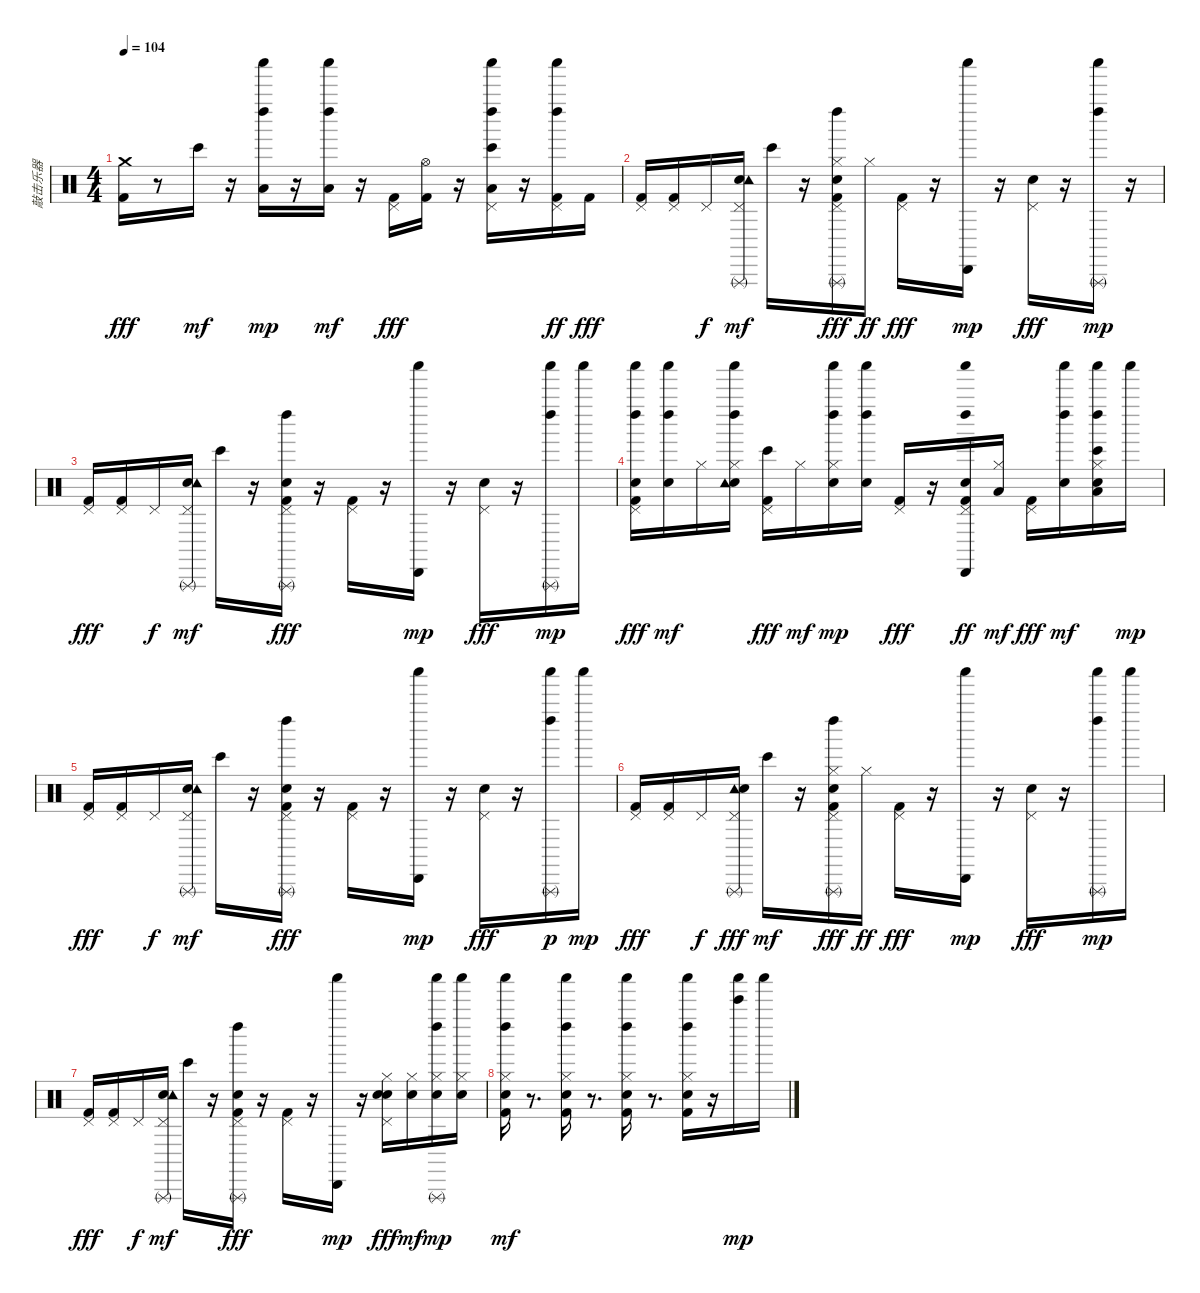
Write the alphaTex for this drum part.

\track ("敲击乐器" "敲击乐器") {instrument percussion}
\staff {score}
\articulation defaults
\ts (4 4)
\tempo 104
\clef neutral
\ks c
("Kick (hit) 2" "Crash medium (hit)").16{dy fff} r.8 "Bongo High (hit)".16{dy mf} r.16 ("Low Tom (hit)" "Shaker (hit)" "Left Maraca (hit)").16{dy mp} r.16 ("Low Tom (hit)" "Left Maraca (hit)" "Shaker (hit)").16{dy mf} r.16 ("Pedal Hi-Hat (hit)" "Kick (hit) 2").16{dy fff} ("Hi-Hat (open)" "Kick (hit) 2").16 r.16 ("Left Maraca (hit)" "Shaker (hit)" "Pedal Hi-Hat (hit)" "Bongo High (hit)" "Low Floor Tom (hit)").16 r.16 ("Left Maraca (hit)" "Shaker (hit)" "Kick (hit) 2" "Pedal Hi-Hat (hit)").16{dy ff} "Kick (hit) 2".16{dy fff} |
("Kick (hit) 2" "Pedal Hi-Hat (hit)").16 ("Kick (hit) 2" "Pedal Hi-Hat (hit)").16 "Pedal Hi-Hat (hit)".16{dy f} ("Snare (hit) 2" "Triangle (rnute)" "Pedal Hi-Hat (hit)" "Tambourine (hit)").16{dy mf} "Bongo High (hit)".16 r.16 ("Left Maraca (hit)" "Triangle (rnute)" "Hand Clap (hit)" "Pedal Hi-Hat (hit)" "Hi-Hat (closed)" "Kick (hit) 2").16{dy fff} "Hi-Hat (closed)".16{dy ff} ("Pedal Hi-Hat (hit)" "Kick (hit) 2").16{dy fff} r.16 ("Shaker (hit)" "Cabasa (hit)").16{dy mp} r.16 ("Pedal Hi-Hat (hit)" "Snare (hit) 2").16{dy fff} r.16 ("Triangle (rnute)" "Shaker (hit)" "Left Maraca (hit)").16{dy mp} r.16 |
("Kick (hit) 2" "Pedal Hi-Hat (hit)").16{dy fff} ("Kick (hit) 2" "Pedal Hi-Hat (hit)").16 "Pedal Hi-Hat (hit)".16{dy f} ("Triangle (rnute)" "Snare (hit) 2" "Tambourine (hit)" "Pedal Hi-Hat (hit)").16{dy mf} "Bongo High (hit)".16 r.16 ("Left Maraca (hit)" "Triangle (rnute)" "Hand Clap (hit)" "Kick (hit) 2" "Pedal Hi-Hat (hit)").16{dy fff} r.16 ("Kick (hit) 2" "Pedal Hi-Hat (hit)").16 r.16 ("Cabasa (hit)" "Shaker (hit)").16{dy mp} r.16 ("Snare (hit) 2" "Pedal Hi-Hat (hit)").16{dy fff} r.16 ("Shaker (hit)" "Triangle (rnute)" "Left Maraca (hit)").16{dy mp} "Shaker (hit)".16 |
("Shaker (hit)" "Left Maraca (hit)" "Hand Clap (hit)" "Pedal Hi-Hat (hit)" "Kick (hit) 2").16{dy fff} ("Shaker (hit)" "Left Maraca (hit)" "Hand Clap (hit)").16{dy mf} "Hi-Hat (closed)".16 ("Shaker (hit)" "Left Maraca (hit)" "Hi-Hat (closed)" "Hand Clap (hit)" "Tambourine (hit)").16 ("Bongo High (hit)" "Pedal Hi-Hat (hit)" "Kick (hit) 2").16{dy fff} "Hi-Hat (closed)".16{dy mf} ("Shaker (hit)" "Left Maraca (hit)" "Hi-Hat (closed)" "Hand Clap (hit)").16{dy mp} ("Shaker (hit)" "Left Maraca (hit)" "Hand Clap (hit)").16 ("Pedal Hi-Hat (hit)" "Kick (hit) 2").16{dy fff} r.16 ("Pedal Hi-Hat (hit)" "Shaker (hit)" "Left Maraca (hit)" "Hand Clap (hit)" "Cabasa (hit)" "Kick (hit) 2").16{dy ff} ("Low Tom (hit)" "Hi-Hat (closed)").16{dy mf} ("Pedal Hi-Hat (hit)" "Kick (hit) 2").16{dy fff} ("Shaker (hit)" "Left Maraca (hit)" "Hand Clap (hit)").16{dy mf} ("Shaker (hit)" "Low Tom (hit)" "Left Maraca (hit)" "Hi-Hat (closed)" "Bongo High (hit)" "Hand Clap (hit)").16 "Shaker (hit)".16{dy mp} |
("Pedal Hi-Hat (hit)" "Kick (hit) 2").16{dy fff} ("Pedal Hi-Hat (hit)" "Kick (hit) 2").16 "Pedal Hi-Hat (hit)".16{dy f} ("Triangle (rnute)" "Snare (hit) 2" "Pedal Hi-Hat (hit)" "Tambourine (hit)").16{dy mf} "Bongo High (hit)".16 r.16 ("Left Maraca (hit)" "Triangle (rnute)" "Hand Clap (hit)" "Pedal Hi-Hat (hit)" "Kick (hit) 2").16{dy fff} r.16 ("Pedal Hi-Hat (hit)" "Kick (hit) 2").16 r.16 ("Shaker (hit)" "Cabasa (hit)").16{dy mp} r.16 ("Pedal Hi-Hat (hit)" "Snare (hit) 2").16{dy fff} r.16 ("Shaker (hit)" "Triangle (rnute)" "Left Maraca (hit)").16{dy p} "Shaker (hit)".16{dy mp} |
("Pedal Hi-Hat (hit)" "Kick (hit) 2").16{dy fff} ("Pedal Hi-Hat (hit)" "Kick (hit) 2").16 "Pedal Hi-Hat (hit)".16{dy f} ("Triangle (rnute)" "Pedal Hi-Hat (hit)" "Tambourine (hit)" "Snare (hit) 2").16{dy fff} "Bongo High (hit)".16{dy mf} r.16 ("Left Maraca (hit)" "Triangle (rnute)" "Hand Clap (hit)" "Pedal Hi-Hat (hit)" "Hi-Hat (closed)" "Kick (hit) 2").16{dy fff} "Hi-Hat (closed)".16{dy ff} ("Pedal Hi-Hat (hit)" "Kick (hit) 2").16{dy fff} r.16 ("Shaker (hit)" "Cabasa (hit)").16{dy mp} r.16 ("Pedal Hi-Hat (hit)" "Snare (hit) 2").16{dy fff} r.16 ("Shaker (hit)" "Triangle (rnute)" "Left Maraca (hit)").16{dy mp} "Shaker (hit)".16 |
("Kick (hit) 2" "Pedal Hi-Hat (hit)").16{dy fff} ("Kick (hit) 2" "Pedal Hi-Hat (hit)").16 "Pedal Hi-Hat (hit)".16{dy f} ("Triangle (rnute)" "Snare (hit) 2" "Tambourine (hit)" "Pedal Hi-Hat (hit)").16{dy mf} "Bongo High (hit)".16 r.16 ("Left Maraca (hit)" "Triangle (rnute)" "Hand Clap (hit)" "Kick (hit) 2" "Pedal Hi-Hat (hit)").16{dy fff} r.16 ("Kick (hit) 2" "Pedal Hi-Hat (hit)").16 r.16 ("Cabasa (hit)" "Shaker (hit)").16{dy mp} r.16 ("Snare (hit) 2" "Hi-Hat (closed)" "Snare (hit) 2" "Pedal Hi-Hat (hit)").16{dy fff} ("Snare (hit) 2" "Hi-Hat (closed)").16{dy mf} ("Snare (hit) 2" "Hi-Hat (closed)" "Shaker (hit)" "Triangle (rnute)" "Left Maraca (hit)").16{dy mp} ("Snare (hit) 2" "Hi-Hat (closed)" "Shaker (hit)").16 |
("Hi-Hat (closed)" "Snare (hit) 2" "Kick (hit) 2" "Shaker (hit)" "Left Maraca (hit)").16{dy mf} r.8{d} ("Hi-Hat (closed)" "Kick (hit) 2" "Snare (hit) 2" "Shaker (hit)" "Left Maraca (hit)").16 r.8{d} ("Hi-Hat (closed)" "Kick (hit) 2" "Snare (hit) 2" "Left Maraca (hit)" "Shaker (hit)").16 r.8{d} ("Hi-Hat (closed)" "Kick (hit) 2" "Snare (hit) 2" "Shaker (hit)" "Left Maraca (hit)").16 r.16 ("Shaker (hit)" "Bell Tree (hit)").16{dy mp} "Shaker (hit)".16
